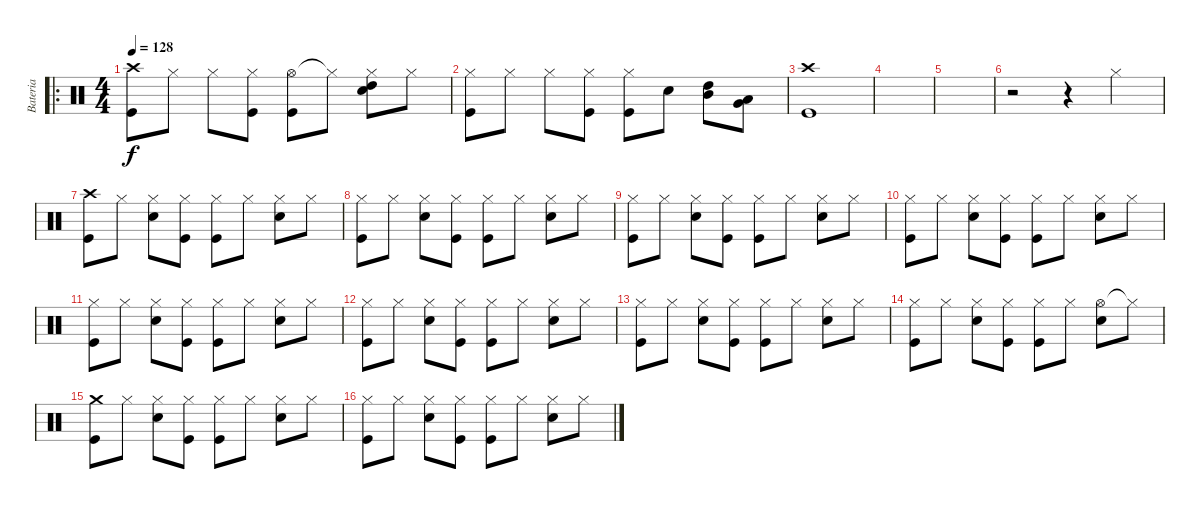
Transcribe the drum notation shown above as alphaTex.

\track ("Bateria" "Bateria") {instrument percussion}
\staff {score}
\articulation defaults
\ro
\ts (4 4)
\tempo 128
\clef neutral
\ks c
("Crash high (hit)" "Kick (hit)").8{dy f} "Hi-Hat (closed)".8 "Hi-Hat (closed)".8 ("Hi-Hat (closed)" "Kick (hit)").8 ("Hi-Hat (open)" "Kick (hit)").8 "Hi-Hat (closed)"{t}.8 ("Hi-Hat (closed)" "Snare (hit) 2" "High Tom (hit)").8 "Hi-Hat (closed)".8 |
("Hi-Hat (closed)" "Kick (hit)").8 "Hi-Hat (closed)".8 "Hi-Hat (closed)".8 ("Hi-Hat (closed)" "Kick (hit)").8 ("Hi-Hat (closed)" "Kick (hit)").8 "Snare (hit) 2".8 ("Mid Tom (hit)" "High Tom (hit)").8 ("Low Tom (hit)" "Very Low Tom (hit)").8 |
("Crash high (hit)" "Kick (hit)").1 |
|
|
r.2 r.4 "Hi-Hat (closed)".4 |
("Crash high (hit)" "Kick (hit)").8 "Hi-Hat (closed)".8 ("Hi-Hat (closed)" "Snare (hit) 2").8 ("Hi-Hat (closed)" "Kick (hit)").8 ("Hi-Hat (closed)" "Kick (hit)").8 "Hi-Hat (closed)".8 ("Hi-Hat (closed)" "Snare (hit) 2").8 "Hi-Hat (closed)".8 |
("Hi-Hat (closed)" "Kick (hit)").8 "Hi-Hat (closed)".8 ("Hi-Hat (closed)" "Snare (hit) 2").8 ("Hi-Hat (closed)" "Kick (hit)").8 ("Hi-Hat (closed)" "Kick (hit)").8 "Hi-Hat (closed)".8 ("Hi-Hat (closed)" "Snare (hit) 2").8 "Hi-Hat (closed)".8 |
("Hi-Hat (closed)" "Kick (hit)").8 "Hi-Hat (closed)".8 ("Hi-Hat (closed)" "Snare (hit) 2").8 ("Hi-Hat (closed)" "Kick (hit)").8 ("Hi-Hat (closed)" "Kick (hit)").8 "Hi-Hat (closed)".8 ("Hi-Hat (closed)" "Snare (hit) 2").8 "Hi-Hat (closed)".8 |
("Hi-Hat (closed)" "Kick (hit)").8 "Hi-Hat (closed)".8 ("Hi-Hat (closed)" "Snare (hit) 2").8 ("Hi-Hat (closed)" "Kick (hit)").8 ("Hi-Hat (closed)" "Kick (hit)").8 "Hi-Hat (closed)".8 ("Hi-Hat (closed)" "Snare (hit) 2").8 "Hi-Hat (closed)".8 |
("Hi-Hat (closed)" "Kick (hit)").8 "Hi-Hat (closed)".8 ("Hi-Hat (closed)" "Snare (hit) 2").8 ("Hi-Hat (closed)" "Kick (hit)").8 ("Hi-Hat (closed)" "Kick (hit)").8 "Hi-Hat (closed)".8 ("Hi-Hat (closed)" "Snare (hit) 2").8 "Hi-Hat (closed)".8 |
("Hi-Hat (closed)" "Kick (hit)").8 "Hi-Hat (closed)".8 ("Hi-Hat (closed)" "Snare (hit) 2").8 ("Hi-Hat (closed)" "Kick (hit)").8 ("Hi-Hat (closed)" "Kick (hit)").8 "Hi-Hat (closed)".8 ("Hi-Hat (closed)" "Snare (hit) 2").8 "Hi-Hat (closed)".8 |
("Hi-Hat (closed)" "Kick (hit)").8 "Hi-Hat (closed)".8 ("Hi-Hat (closed)" "Snare (hit) 2").8 ("Hi-Hat (closed)" "Kick (hit)").8 ("Hi-Hat (closed)" "Kick (hit)").8 "Hi-Hat (closed)".8 ("Hi-Hat (closed)" "Snare (hit) 2").8 "Hi-Hat (closed)".8 |
("Hi-Hat (closed)" "Kick (hit)").8 "Hi-Hat (closed)".8 ("Hi-Hat (closed)" "Snare (hit) 2").8 ("Hi-Hat (closed)" "Kick (hit)").8 ("Hi-Hat (closed)" "Kick (hit)").8 "Hi-Hat (closed)".8 ("Hi-Hat (open)" "Snare (hit) 2").8 "Hi-Hat (closed)"{t}.8 |
("Crash medium (hit)" "Kick (hit)").8 "Hi-Hat (closed)".8 ("Hi-Hat (closed)" "Snare (hit) 2").8 ("Hi-Hat (closed)" "Kick (hit)").8 ("Hi-Hat (closed)" "Kick (hit)").8 "Hi-Hat (closed)".8 ("Hi-Hat (closed)" "Snare (hit) 2").8 "Hi-Hat (closed)".8 |
("Hi-Hat (closed)" "Kick (hit)").8 "Hi-Hat (closed)".8 ("Hi-Hat (closed)" "Snare (hit) 2").8 ("Hi-Hat (closed)" "Kick (hit)").8 ("Hi-Hat (closed)" "Kick (hit)").8 "Hi-Hat (closed)".8 ("Hi-Hat (closed)" "Snare (hit) 2").8 "Hi-Hat (closed)".8
